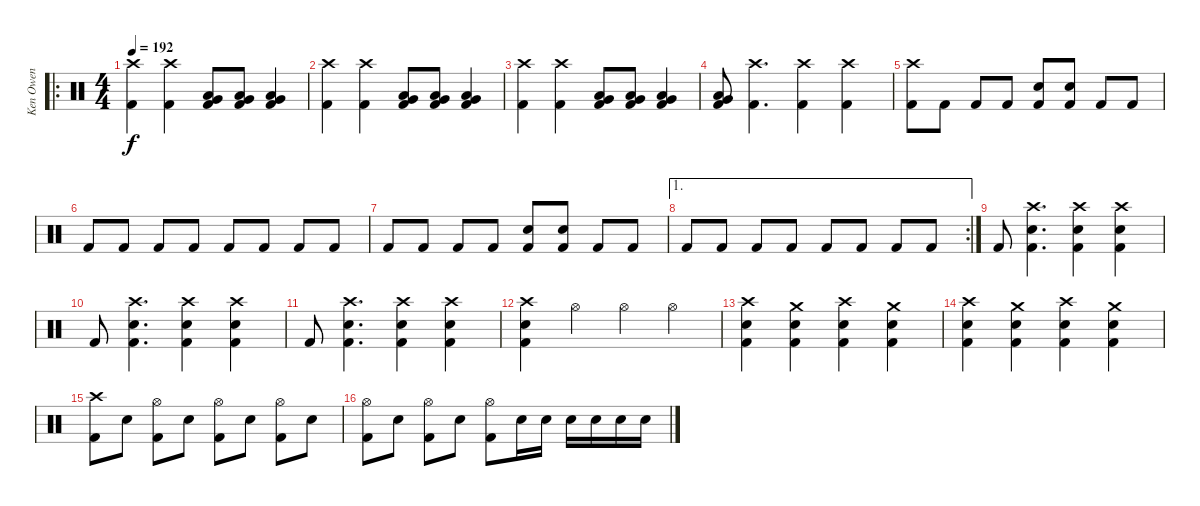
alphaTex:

\track ("Ken Owen" "Ken Owen") {instrument percussion}
\staff {score}
\articulation defaults
\ro
\ts (4 4)
\tempo 192
\clef neutral
\ks c
("Crash high (hit)" "Kick (hit) 2").4{dy f} ("Crash high (hit)" "Kick (hit) 2").4 ("Very Low Tom (hit)" "Low Tom (hit)" "Kick (hit) 2").8 ("Very Low Tom (hit)" "Low Tom (hit)" "Kick (hit) 2").8 ("Very Low Tom (hit)" "Low Tom (hit)" "Kick (hit) 2").4 |
("Crash high (hit)" "Kick (hit) 2").4 ("Crash high (hit)" "Kick (hit) 2").4 ("Very Low Tom (hit)" "Low Tom (hit)" "Kick (hit) 2").8 ("Very Low Tom (hit)" "Low Tom (hit)" "Kick (hit) 2").8 ("Very Low Tom (hit)" "Low Tom (hit)" "Kick (hit) 2").4 |
("Crash high (hit)" "Kick (hit) 2").4 ("Crash high (hit)" "Kick (hit) 2").4 ("Very Low Tom (hit)" "Low Tom (hit)" "Kick (hit) 2").8 ("Very Low Tom (hit)" "Low Tom (hit)" "Kick (hit) 2").8 ("Very Low Tom (hit)" "Low Tom (hit)" "Kick (hit) 2").4 |
("Very Low Tom (hit)" "Low Tom (hit)" "Kick (hit) 2").8 ("Crash high (hit)" "Kick (hit) 2").4{d} ("Crash high (hit)" "Kick (hit) 2").4 ("Crash high (hit)" "Kick (hit) 2").4 |
("Crash high (hit)" "Kick (hit) 2").8 "Kick (hit) 2".8 "Kick (hit) 2".8 "Kick (hit) 2".8 ("Snare (hit) 2" "Kick (hit) 2").8 ("Snare (hit) 2" "Kick (hit) 2").8 "Kick (hit) 2".8 "Kick (hit) 2".8 |
"Kick (hit) 2".8 "Kick (hit) 2".8 "Kick (hit) 2".8 "Kick (hit) 2".8 "Kick (hit) 2".8 "Kick (hit) 2".8 "Kick (hit) 2".8 "Kick (hit) 2".8 |
"Kick (hit) 2".8 "Kick (hit) 2".8 "Kick (hit) 2".8 "Kick (hit) 2".8 ("Snare (hit) 2" "Kick (hit) 2").8 ("Snare (hit) 2" "Kick (hit) 2").8 "Kick (hit) 2".8 "Kick (hit) 2".8 |
\ae 1
\rc 2 "Kick (hit) 2".8 "Kick (hit) 2".8 "Kick (hit) 2".8 "Kick (hit) 2".8 "Kick (hit) 2".8 "Kick (hit) 2".8 "Kick (hit) 2".8 "Kick (hit) 2".8
|
"Kick (hit) 2".8 ("Crash high (hit)" "Snare (hit) 2" "Kick (hit) 2").4{d} ("Crash high (hit)" "Snare (hit) 2" "Kick (hit) 2").4 ("Crash high (hit)" "Snare (hit) 2" "Kick (hit) 2").4 |
"Kick (hit) 2".8 ("Crash high (hit)" "Snare (hit) 2" "Kick (hit) 2").4{d} ("Crash high (hit)" "Snare (hit) 2" "Kick (hit) 2").4 ("Crash high (hit)" "Snare (hit) 2" "Kick (hit) 2").4 |
"Kick (hit) 2".8 ("Crash high (hit)" "Snare (hit) 2" "Kick (hit) 2").4{d} ("Crash high (hit)" "Snare (hit) 2" "Kick (hit) 2").4 ("Crash high (hit)" "Snare (hit) 2" "Kick (hit) 2").4 |
("Crash high (hit)" "Snare (hit) 2" "Kick (hit) 2").4 "Hi-Hat (open)".4 "Hi-Hat (open)".4 "Hi-Hat (open)".4 |
("Crash high (hit)" "Snare (hit) 2" "Kick (hit) 2").4 ("Crash medium (hit)" "Snare (hit) 2" "Kick (hit) 2").4 ("Crash high (hit)" "Snare (hit) 2" "Kick (hit) 2").4 ("Crash medium (hit)" "Snare (hit) 2" "Kick (hit) 2").4 |
("Crash high (hit)" "Snare (hit) 2" "Kick (hit) 2").4 ("Crash medium (hit)" "Snare (hit) 2" "Kick (hit) 2").4 ("Crash high (hit)" "Snare (hit) 2" "Kick (hit) 2").4 ("Crash medium (hit)" "Snare (hit) 2" "Kick (hit) 2").4 |
("Crash high (hit)" "Kick (hit) 2").8 "Snare (hit) 2".8 ("Hi-Hat (open)" "Kick (hit) 2").8 "Snare (hit) 2".8 ("Hi-Hat (open)" "Kick (hit) 2").8 "Snare (hit) 2".8 ("Hi-Hat (open)" "Kick (hit) 2").8 "Snare (hit) 2".8 |
("Hi-Hat (open)" "Kick (hit) 2").8 "Snare (hit) 2".8 ("Hi-Hat (open)" "Kick (hit) 2").8 "Snare (hit) 2".8 ("Hi-Hat (open)" "Kick (hit) 2").8 "Snare (hit) 2".16 "Snare (hit) 2".16 "Snare (hit) 2".16 "Snare (hit) 2".16 "Snare (hit) 2".16 "Snare (hit) 2".16
